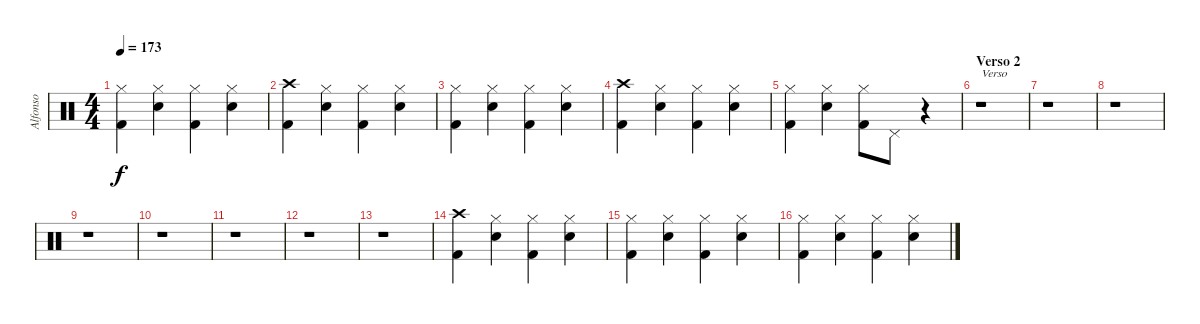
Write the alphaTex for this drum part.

\track ("Alfonso" "Alfonso") {instrument percussion}
\staff {score}
\articulation defaults
\ts (4 4)
\tempo 173
\clef neutral
\ks c
("Kick (hit) 2" "Hi-Hat (closed)").4{dy f} ("Electric Snare (hit)" "Hi-Hat (closed)").4 ("Kick (hit) 2" "Hi-Hat (closed)").4 ("Electric Snare (hit)" "Hi-Hat (closed)").4 |
("Kick (hit) 2" "Crash high (hit)").4 ("Electric Snare (hit)" "Hi-Hat (closed)").4 ("Kick (hit) 2" "Hi-Hat (closed)").4 ("Electric Snare (hit)" "Hi-Hat (closed)").4 |
("Kick (hit) 2" "Hi-Hat (closed)").4 ("Electric Snare (hit)" "Hi-Hat (closed)").4 ("Kick (hit) 2" "Hi-Hat (closed)").4 ("Electric Snare (hit)" "Hi-Hat (closed)").4 |
("Kick (hit) 2" "Crash high (hit)").4 ("Electric Snare (hit)" "Hi-Hat (closed)").4 ("Kick (hit) 2" "Hi-Hat (closed)").4 ("Electric Snare (hit)" "Hi-Hat (closed)").4 |
("Kick (hit) 2" "Hi-Hat (closed)").4 ("Electric Snare (hit)" "Hi-Hat (closed)").4 ("Kick (hit) 2" "Hi-Hat (closed)").8 "Pedal Hi-Hat (hit)".8 r.4 |
\section ("" "Verso 2")
r.1{txt "Verso"} |
r.1 |
r.1 |
r.1 |
r.1 |
r.1 |
r.1 |
r.1 |
("Kick (hit) 2" "Crash high (hit)").4 ("Electric Snare (hit)" "Hi-Hat (closed)").4 ("Kick (hit) 2" "Hi-Hat (closed)").4 ("Electric Snare (hit)" "Hi-Hat (closed)").4 |
("Kick (hit) 2" "Hi-Hat (closed)").4 ("Electric Snare (hit)" "Hi-Hat (closed)").4 ("Kick (hit) 2" "Hi-Hat (closed)").4 ("Electric Snare (hit)" "Hi-Hat (closed)").4 |
("Kick (hit) 2" "Hi-Hat (closed)").4 ("Electric Snare (hit)" "Hi-Hat (closed)").4 ("Kick (hit) 2" "Hi-Hat (closed)").4 ("Electric Snare (hit)" "Hi-Hat (closed)").4
